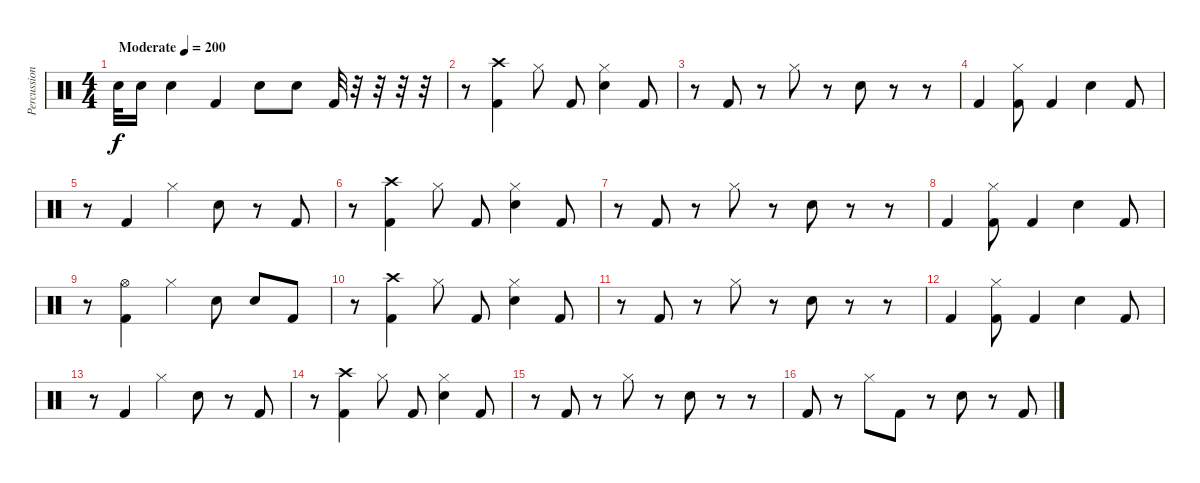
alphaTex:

\track ("Percussion" "Percussion") {instrument percussion}
\staff {score}
\articulation defaults
\ts (4 4)
\tempo (200 "Moderate")
\clef neutral
\ks c "Snare (hit) 2".32{dy f} "Snare (hit) 2".16 "Snare (hit) 2".4 "Kick (hit) 2".4 "Snare (hit) 2".8 "Snare (hit) 2".8 "Kick (hit) 2".32
r.32 r.32 r.32 r.32 |
r.8 ("Kick (hit) 2" "Crash high (hit)").4 "Hi-Hat (closed)".8 "Kick (hit) 2".8 ("Snare (hit) 2" "Hi-Hat (closed)").4 "Kick (hit) 2".8 |
r.8 "Kick (hit) 2".8 r.8 "Hi-Hat (closed)".8 r.8 "Snare (hit) 2".8 r.8 r.8 |
"Kick (hit) 2".4 ("Kick (hit) 2" "Hi-Hat (closed)").8 "Kick (hit) 2".4 "Snare (hit) 2".4 "Kick (hit) 2".8 |
r.8 "Kick (hit) 2".4 "Hi-Hat (closed)".4 "Snare (hit) 2".8 r.8 "Kick (hit) 2".8 |
r.8 ("Kick (hit) 2" "Crash high (hit)").4 "Hi-Hat (closed)".8 "Kick (hit) 2".8 ("Snare (hit) 2" "Hi-Hat (closed)").4 "Kick (hit) 2".8 |
r.8 "Kick (hit) 2".8 r.8 "Hi-Hat (closed)".8 r.8 "Snare (hit) 2".8 r.8 r.8 |
"Kick (hit) 2".4 ("Kick (hit) 2" "Hi-Hat (closed)").8 "Kick (hit) 2".4 "Snare (hit) 2".4 "Kick (hit) 2".8 |
r.8 ("Kick (hit) 2" "Hi-Hat (open)").4 "Hi-Hat (closed)".4 "Snare (hit) 2".8 "Snare (hit) 2".8 "Kick (hit) 2".8 |
r.8 ("Kick (hit) 2" "Crash high (hit)").4 "Hi-Hat (closed)".8 "Kick (hit) 2".8 ("Snare (hit) 2" "Hi-Hat (closed)").4 "Kick (hit) 2".8 |
r.8 "Kick (hit) 2".8 r.8 "Hi-Hat (closed)".8 r.8 "Snare (hit) 2".8 r.8 r.8 |
"Kick (hit) 2".4 ("Kick (hit) 2" "Hi-Hat (closed)").8 "Kick (hit) 2".4 "Snare (hit) 2".4 "Kick (hit) 2".8 |
r.8 "Kick (hit) 2".4 "Hi-Hat (closed)".4 "Snare (hit) 2".8 r.8 "Kick (hit) 2".8 |
r.8 ("Kick (hit) 2" "Crash high (hit)").4 "Hi-Hat (closed)".8 "Kick (hit) 2".8 ("Snare (hit) 2" "Hi-Hat (closed)").4 "Kick (hit) 2".8 |
r.8 "Kick (hit) 2".8 r.8 "Hi-Hat (closed)".8 r.8 "Snare (hit) 2".8 r.8 r.8 |
"Kick (hit) 2".8 r.8 "Hi-Hat (closed)".8 "Kick (hit) 2".8 r.8 "Snare (hit) 2".8 r.8 "Kick (hit) 2".8
